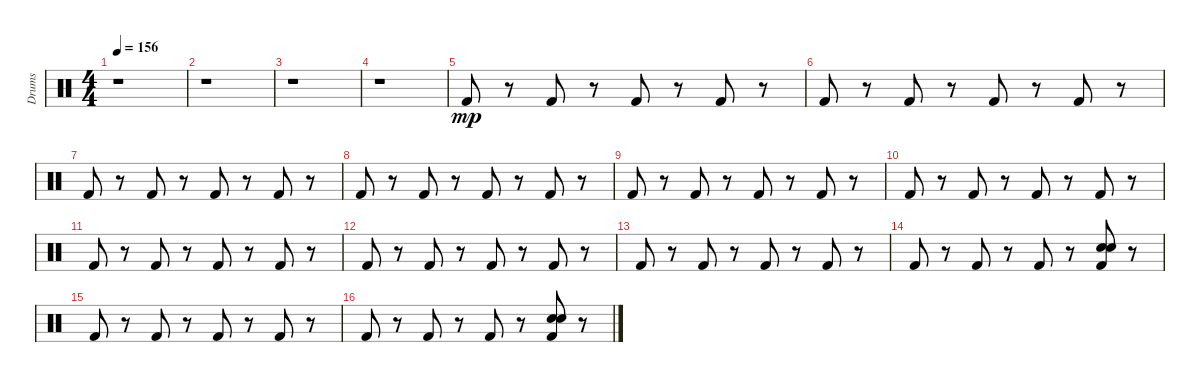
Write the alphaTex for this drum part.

\track ("Drums" "Drums") {instrument percussion}
\staff {score}
\articulation defaults
\ts (4 4)
\tempo 156
\clef neutral
\ks c
r.1{dy mp} |
r.1 |
r.1 |
r.1 |
"Kick (hit) 2".8 r.8 "Kick (hit) 2".8 r.8 "Kick (hit) 2".8 r.8 "Kick (hit) 2".8 r.8 |
"Kick (hit) 2".8 r.8 "Kick (hit) 2".8 r.8 "Kick (hit) 2".8 r.8 "Kick (hit) 2".8 r.8 |
"Kick (hit) 2".8 r.8 "Kick (hit) 2".8 r.8 "Kick (hit) 2".8 r.8 "Kick (hit) 2".8 r.8 |
"Kick (hit) 2".8 r.8 "Kick (hit) 2".8 r.8 "Kick (hit) 2".8 r.8 "Kick (hit) 2".8 r.8 |
"Kick (hit) 2".8 r.8 "Kick (hit) 2".8 r.8 "Kick (hit) 2".8 r.8 "Kick (hit) 2".8 r.8 |
"Kick (hit) 2".8 r.8 "Kick (hit) 2".8 r.8 "Kick (hit) 2".8 r.8 "Kick (hit) 2".8 r.8 |
"Kick (hit) 2".8 r.8 "Kick (hit) 2".8 r.8 "Kick (hit) 2".8 r.8 "Kick (hit) 2".8 r.8 |
"Kick (hit) 2".8 r.8 "Kick (hit) 2".8 r.8 "Kick (hit) 2".8 r.8 "Kick (hit) 2".8 r.8 |
"Kick (hit) 2".8 r.8 "Kick (hit) 2".8 r.8 "Kick (hit) 2".8 r.8 "Kick (hit) 2".8 r.8 |
"Kick (hit) 2".8 r.8 "Kick (hit) 2".8 r.8 "Kick (hit) 2".8 r.8 ("Electric Snare (hit)" "Kick (hit) 2" "Snare (hit) 2").8 r.8 |
"Kick (hit) 2".8 r.8 "Kick (hit) 2".8 r.8 "Kick (hit) 2".8 r.8 "Kick (hit) 2".8 r.8 |
"Kick (hit) 2".8 r.8 "Kick (hit) 2".8 r.8 "Kick (hit) 2".8 r.8 ("Snare (hit) 2" "Electric Snare (hit)" "Kick (hit) 2").8 r.8
